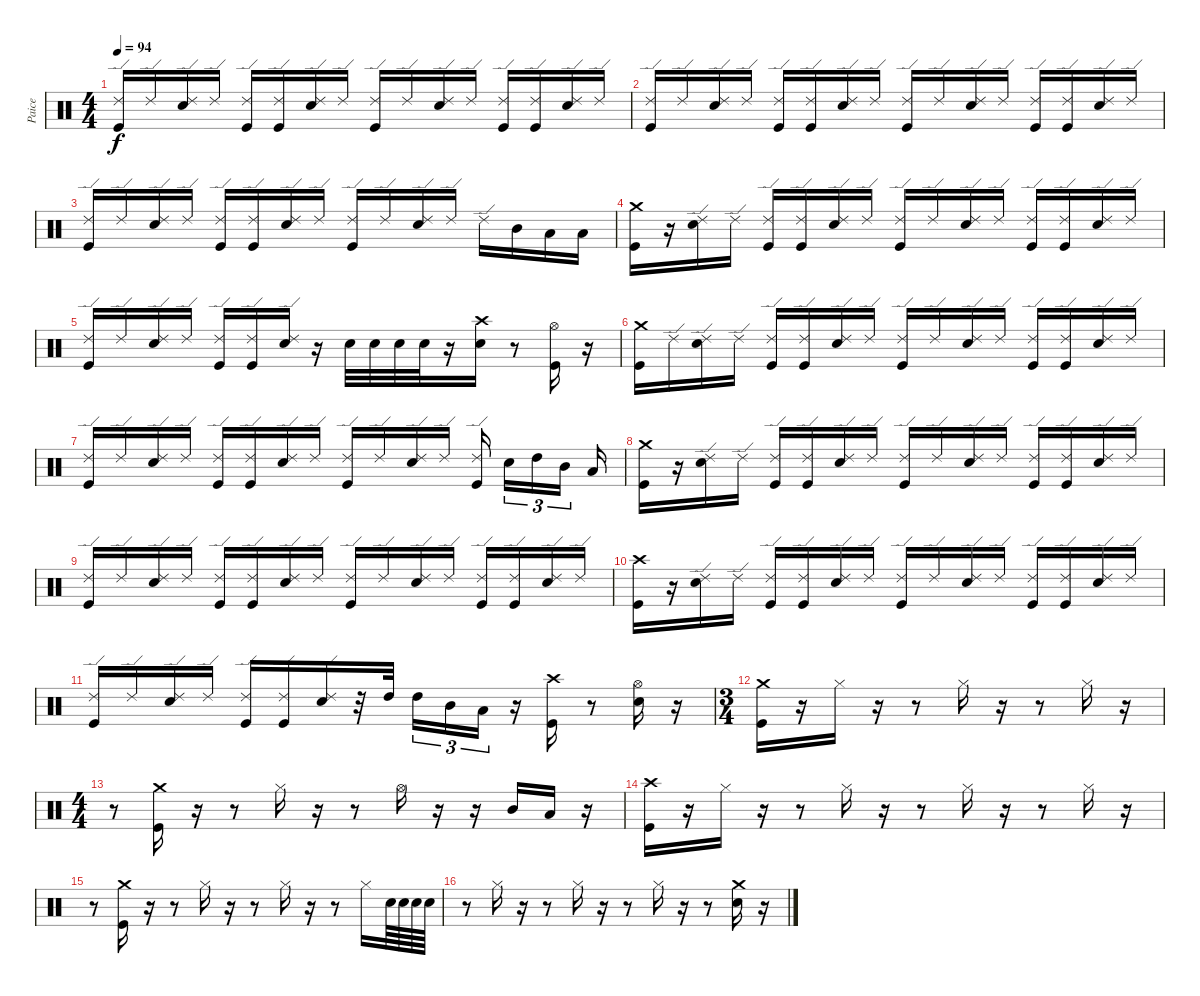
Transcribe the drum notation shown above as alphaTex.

\track ("Paice" "Paice") {instrument percussion}
\staff {score}
\articulation defaults
\ts (4 4)
\tempo 94
\clef neutral
\ks c
("Ride (edge) 2" "Kick (hit)").16{dy f} "Ride (edge) 2".16 ("Ride (edge) 2" "Snare (hit) 2").16 "Ride (edge) 2".16 ("Ride (edge) 2" "Kick (hit)").16 ("Ride (edge) 2" "Kick (hit)").16 ("Ride (edge) 2" "Snare (hit) 2").16 "Ride (edge) 2".16 ("Ride (edge) 2" "Kick (hit)").16 "Ride (edge) 2".16 ("Ride (edge) 2" "Snare (hit) 2").16 "Ride (edge) 2".16 ("Ride (edge) 2" "Kick (hit)").16 ("Ride (edge) 2" "Kick (hit)").16 ("Ride (edge) 2" "Snare (hit) 2").16 "Ride (edge) 2".16 |
("Ride (edge) 2" "Kick (hit)").16 "Ride (edge) 2".16 ("Ride (edge) 2" "Snare (hit) 2").16 "Ride (edge) 2".16 ("Ride (edge) 2" "Kick (hit)").16 ("Ride (edge) 2" "Kick (hit)").16 ("Ride (edge) 2" "Snare (hit) 2").16 "Ride (edge) 2".16 ("Ride (edge) 2" "Kick (hit)").16 "Ride (edge) 2".16 ("Ride (edge) 2" "Snare (hit) 2").16 "Ride (edge) 2".16 ("Ride (edge) 2" "Kick (hit)").16 ("Ride (edge) 2" "Kick (hit)").16 ("Ride (edge) 2" "Snare (hit) 2").16 "Ride (edge) 2".16 |
("Ride (edge) 2" "Kick (hit)").16 "Ride (edge) 2".16 ("Ride (edge) 2" "Snare (hit) 2").16 "Ride (edge) 2".16 ("Ride (edge) 2" "Kick (hit)").16 ("Ride (edge) 2" "Kick (hit)").16 ("Ride (edge) 2" "Snare (hit) 2").16 "Ride (edge) 2".16 ("Ride (edge) 2" "Kick (hit)").16 "Ride (edge) 2".16 ("Ride (edge) 2" "Snare (hit) 2").16 "Ride (edge) 2".16 "Ride (edge) 2".16 "Mid Tom (hit)".16 "Low Tom (hit)".16 "Low Tom (hit)".16 |
("Crash medium (hit)" "Kick (hit)").16 r.16 ("Ride (edge) 2" "Snare (hit) 2").16 "Ride (edge) 2".16 ("Ride (edge) 2" "Kick (hit)").16 ("Ride (edge) 2" "Kick (hit)").16 ("Ride (edge) 2" "Snare (hit) 2").16 "Ride (edge) 2".16 ("Ride (edge) 2" "Kick (hit)").16 "Ride (edge) 2".16 ("Ride (edge) 2" "Snare (hit) 2").16 "Ride (edge) 2".16 ("Ride (edge) 2" "Kick (hit)").16 ("Ride (edge) 2" "Kick (hit)").16 ("Ride (edge) 2" "Snare (hit) 2").16 "Ride (edge) 2".16 |
("Ride (edge) 2" "Kick (hit)").16 "Ride (edge) 2".16 ("Ride (edge) 2" "Snare (hit) 2").16 "Ride (edge) 2".16 ("Ride (edge) 2" "Kick (hit)").16 ("Ride (edge) 2" "Kick (hit)").16 ("Ride (edge) 2" "Snare (hit) 2").16 r.16 "Snare (hit) 2".32 "Snare (hit) 2".32 "Snare (hit) 2".32 "Snare (hit) 2".32 r.16 ("Snare (hit) 2" "Crash high (hit)").16 r.8 ("Hi-Hat (open)" "Kick (hit)").16 r.16 |
("Crash medium (hit)" "Kick (hit)").16 "Ride (edge) 2".16 ("Ride (edge) 2" "Snare (hit) 2").16 "Ride (edge) 2".16 ("Ride (edge) 2" "Kick (hit)").16 ("Ride (edge) 2" "Kick (hit)").16 ("Ride (edge) 2" "Snare (hit) 2").16 "Ride (edge) 2".16 ("Ride (edge) 2" "Kick (hit)").16 "Ride (edge) 2".16 ("Ride (edge) 2" "Snare (hit) 2").16 "Ride (edge) 2".16 ("Ride (edge) 2" "Kick (hit)").16 ("Ride (edge) 2" "Kick (hit)").16 ("Ride (edge) 2" "Snare (hit) 2").16 "Ride (edge) 2".16 |
("Ride (edge) 2" "Kick (hit)").16 "Ride (edge) 2".16 ("Ride (edge) 2" "Snare (hit) 2").16 "Ride (edge) 2".16 ("Ride (edge) 2" "Kick (hit)").16 ("Ride (edge) 2" "Kick (hit)").16 ("Ride (edge) 2" "Snare (hit) 2").16 "Ride (edge) 2".16 ("Ride (edge) 2" "Kick (hit)").16 "Ride (edge) 2".16 ("Ride (edge) 2" "Snare (hit) 2").16 "Ride (edge) 2".16 ("Ride (edge) 2" "Kick (hit)").16 "Snare (hit) 2".16{tu (3 2)} "High Tom (hit)".16{tu (3 2)} "Mid Tom (hit)".16{tu (3 2)} "Low Tom (hit)".16 |
("Crash medium (hit)" "Kick (hit)").16 r.16 ("Ride (edge) 2" "Snare (hit) 2").16 "Ride (edge) 2".16 ("Ride (edge) 2" "Kick (hit)").16 ("Ride (edge) 2" "Kick (hit)").16 ("Ride (edge) 2" "Snare (hit) 2").16 "Ride (edge) 2".16 ("Ride (edge) 2" "Kick (hit)").16 "Ride (edge) 2".16 ("Ride (edge) 2" "Snare (hit) 2").16 "Ride (edge) 2".16 ("Ride (edge) 2" "Kick (hit)").16 ("Ride (edge) 2" "Kick (hit)").16 ("Ride (edge) 2" "Snare (hit) 2").16 "Ride (edge) 2".16 |
("Ride (edge) 2" "Kick (hit)").16 "Ride (edge) 2".16 ("Ride (edge) 2" "Snare (hit) 2").16 "Ride (edge) 2".16 ("Ride (edge) 2" "Kick (hit)").16 ("Ride (edge) 2" "Kick (hit)").16 ("Ride (edge) 2" "Snare (hit) 2").16 "Ride (edge) 2".16 ("Ride (edge) 2" "Kick (hit)").16 "Ride (edge) 2".16 ("Ride (edge) 2" "Snare (hit) 2").16 "Ride (edge) 2".16 ("Ride (edge) 2" "Kick (hit)").16 ("Ride (edge) 2" "Kick (hit)").16 ("Ride (edge) 2" "Snare (hit) 2").16 "Ride (edge) 2".16 |
("Crash high (hit)" "Kick (hit)").16 r.16 ("Ride (edge) 2" "Snare (hit) 2").16 "Ride (edge) 2".16 ("Ride (edge) 2" "Kick (hit)").16 ("Ride (edge) 2" "Kick (hit)").16 ("Ride (edge) 2" "Snare (hit) 2").16 "Ride (edge) 2".16 ("Ride (edge) 2" "Kick (hit)").16 "Ride (edge) 2".16 ("Ride (edge) 2" "Snare (hit) 2").16 "Ride (edge) 2".16 ("Ride (edge) 2" "Kick (hit)").16 ("Ride (edge) 2" "Kick (hit)").16 ("Ride (edge) 2" "Snare (hit) 2").16 "Ride (edge) 2".16 |
("Ride (edge) 2" "Kick (hit)").16 "Ride (edge) 2".16 ("Ride (edge) 2" "Snare (hit) 2").16 "Ride (edge) 2".16 ("Ride (edge) 2" "Kick (hit)").16 ("Ride (edge) 2" "Kick (hit)").16 ("Ride (edge) 2" "Snare (hit) 2").16 r.32 "High Tom (hit)".32 "High Tom (hit)".16{tu (3 2)} "Mid Tom (hit)".16{tu (3 2)} "Low Tom (hit)".16{tu (3 2)} r.16 ("Crash high (hit)" "Kick (hit)").16 r.8 ("Hi-Hat (open)" "Snare (hit) 2").16 r.16 |
\ts (3 4)
("Crash medium (hit)" "Kick (hit)").16 r.16 "Hi-Hat (closed)".16 r.16 r.8 "Hi-Hat (closed)".16 r.16 r.8 "Hi-Hat (closed)".16 r.16 |
\ts (4 4)
r.8 ("Crash medium (hit)" "Kick (hit)").16 r.16 r.8 "Hi-Hat (closed)".16 r.16 r.8 "Hi-Hat (open)".16 r.16 r.16 "Mid Tom (hit)".16 "Low Tom (hit)".16 r.16 |
("Crash high (hit)" "Kick (hit)").16 r.16 "Hi-Hat (closed)".16 r.16 r.8 "Hi-Hat (closed)".16 r.16 r.8 "Hi-Hat (closed)".16 r.16 r.8 "Hi-Hat (closed)".16 r.16 |
r.8 ("Crash medium (hit)" "Kick (hit)").16 r.16 r.8 "Hi-Hat (closed)".16 r.16 r.8 "Hi-Hat (closed)".16 r.16 r.8 "Hi-Hat (closed)".16 "Snare (hit) 2".64 "Snare (hit) 2".64 "Snare (hit) 2".64 "Snare (hit) 2".64 |
r.8 "Hi-Hat (closed)".16 r.16 r.8 "Hi-Hat (closed)".16 r.16 r.8 "Hi-Hat (closed)".16 r.16 r.8 ("Crash medium (hit)" "Snare (hit) 2").16 r.16
